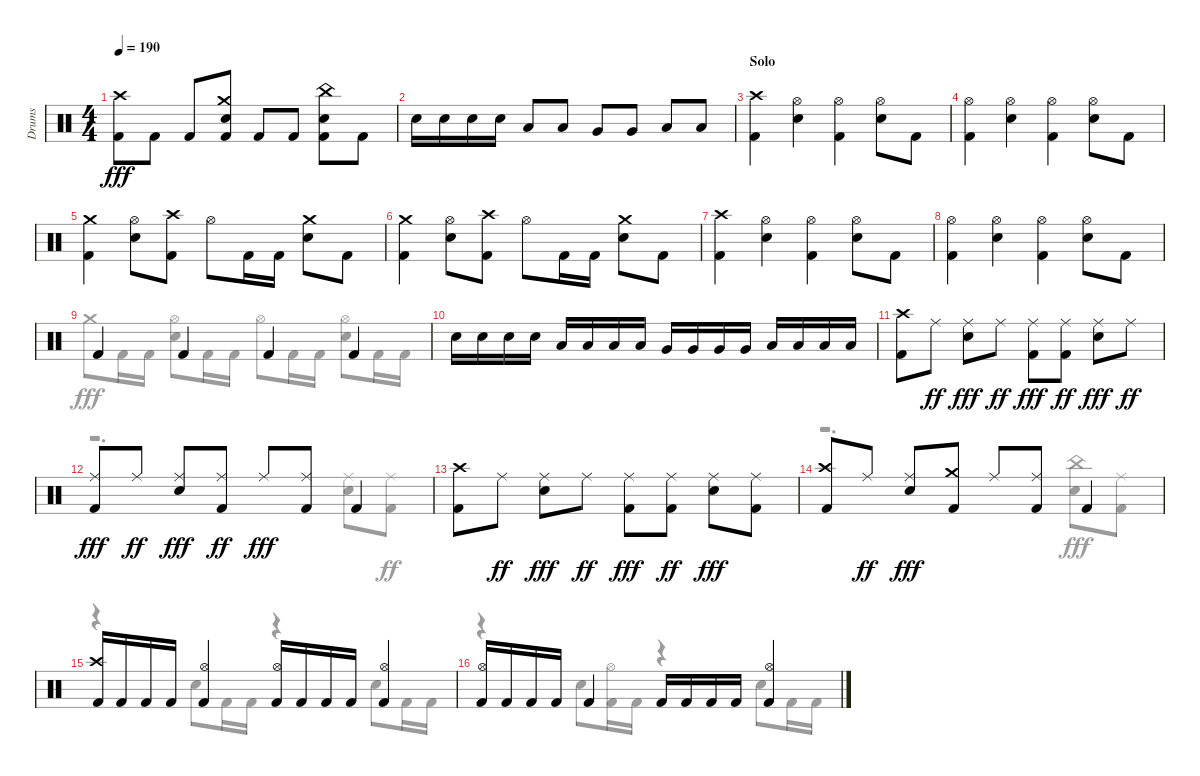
\track ("Drums" "Drums") {instrument percussion}
\staff {score}
\articulation defaults
\voice
\ts (4 4)
\tempo 190
\clef neutral
\ks aminor
("Crash high (hit)" "Kick (hit) 2").8{dy fff} "Kick (hit) 2".8 "Kick (hit) 2".8 ("Crash medium (hit)" "Kick (hit) 2" "Snare (hit) 2").8 "Kick (hit) 2".8 "Kick (hit) 2".8 ("Kick (hit) 2" "China (hit)" "Snare (hit) 2").8 "Kick (hit) 2".8 |
"Snare (hit) 2".16 "Snare (hit) 2".16 "Snare (hit) 2".16 "Snare (hit) 2".16 "Low Tom (hit)".8 "Low Tom (hit)".8 "Very Low Tom (hit)".8 "Very Low Tom (hit)".8 "Low Floor Tom (hit)".8 "Low Floor Tom (hit)".8 |
\section ("" "Solo")
("Kick (hit) 2" "Crash high (hit)").4 ("Hi-Hat (open)" "Snare (hit) 2").4 ("Hi-Hat (open)" "Kick (hit) 2").4 ("Hi-Hat (open)" "Snare (hit) 2").8 "Kick (hit) 2".8 |
("Kick (hit) 2" "Hi-Hat (open)").4 ("Hi-Hat (open)" "Snare (hit) 2").4 ("Hi-Hat (open)" "Kick (hit) 2").4 ("Hi-Hat (open)" "Snare (hit) 2").8 "Kick (hit) 2".8 |
("Kick (hit) 2" "Crash medium (hit)").4 ("Hi-Hat (open)" "Snare (hit) 2").8 ("Crash high (hit)" "Kick (hit) 2").8 "Hi-Hat (open)".8 "Kick (hit) 2".16 "Kick (hit) 2".16 ("Crash medium (hit)" "Snare (hit) 2").8 "Kick (hit) 2".8 |
("Crash medium (hit)" "Kick (hit) 2").4 ("Snare (hit) 2" "Hi-Hat (open)").8 ("Crash high (hit)" "Kick (hit) 2").8 "Hi-Hat (open)".8 "Kick (hit) 2".16 "Kick (hit) 2".16 ("Crash medium (hit)" "Snare (hit) 2").8 "Kick (hit) 2".8 |
("Kick (hit) 2" "Crash high (hit)").4 ("Hi-Hat (open)" "Snare (hit) 2").4 ("Kick (hit) 2" "Hi-Hat (open)").4 ("Hi-Hat (open)" "Snare (hit) 2").8 "Kick (hit) 2".8 |
("Hi-Hat (open)" "Kick (hit) 2").4 ("Snare (hit) 2" "Hi-Hat (open)").4 ("Hi-Hat (open)" "Kick (hit) 2").4 ("Hi-Hat (open)" "Snare (hit) 2").8 "Kick (hit) 2".8 |
"Kick (hit) 2".4 "Kick (hit) 2".4 "Kick (hit) 2".4 "Kick (hit) 2".4 |
"Snare (hit) 2".16 "Snare (hit) 2".16 "Snare (hit) 2".16 "Snare (hit) 2".16 "Low Tom (hit)".16 "Low Tom (hit)".16 "Low Tom (hit)".16 "Low Tom (hit)".16 "Very Low Tom (hit)".16 "Very Low Tom (hit)".16 "Very Low Tom (hit)".16 "Very Low Tom (hit)".16 "Low Floor Tom (hit)".16 "Low Floor Tom (hit)".16 "Low Floor Tom (hit)".16 "Low Floor Tom (hit)".16 |
("Kick (hit) 2" "Crash high (hit)").8 "Ride (middle)".8{dy ff} ("Ride (middle)" "Snare (hit) 2").8{dy fff} "Ride (middle)".8{dy ff} ("Kick (hit) 2" "Ride (middle)").8{dy fff} ("Ride (middle)" "Kick (hit) 2").8{dy ff} ("Ride (middle)" "Snare (hit) 2").8{dy fff} "Ride (middle)".8{dy ff} |
("Ride (middle)" "Kick (hit) 2").8{dy fff} "Ride (middle)".8{dy ff} ("Snare (hit) 2" "Ride (middle)").8{dy fff} ("Ride (middle)" "Kick (hit) 2").8{dy ff} "Ride (middle)".8{dy fff} ("Ride (middle)" "Kick (hit) 2").8 "Kick (hit) 2".4 |
("Crash high (hit)" "Kick (hit) 2").8 "Ride (middle)".8{dy ff} ("Ride (middle)" "Snare (hit) 2").8{dy fff} "Ride (middle)".8{dy ff} ("Ride (middle)" "Kick (hit) 2").8{dy fff} ("Kick (hit) 2" "Ride (middle)").8{dy ff} ("Ride (middle)" "Snare (hit) 2").8{dy fff} ("Ride (middle)" "Kick (hit) 2").8 |
("Kick (hit) 2" "Crash high (hit)").8 "Ride (middle)".8{dy ff} ("Ride (middle)" "Snare (hit) 2").8{dy fff} ("Kick (hit) 2" "Crash medium (hit)").8 "Ride (middle)".8 ("Ride (middle)" "Kick (hit) 2").8 "Kick (hit) 2".4 |
("Crash high (hit)" "Kick (hit) 2").16 "Kick (hit) 2".16 "Kick (hit) 2".16 "Kick (hit) 2".16 ("Kick (hit) 2" "Hi-Hat (open)").4 ("Hi-Hat (open)" "Kick (hit) 2").16 "Kick (hit) 2".16 "Kick (hit) 2".16 "Kick (hit) 2".16 ("Hi-Hat (open)" "Kick (hit) 2").4 |
("Kick (hit) 2" "Hi-Hat (open)").16 "Kick (hit) 2".16 "Kick (hit) 2".16 "Kick (hit) 2".16 "Kick (hit) 2".4 "Kick (hit) 2".16 "Kick (hit) 2".16 "Kick (hit) 2".16 "Kick (hit) 2".16 ("Kick (hit) 2" "Hi-Hat (open)").4
\voice
\clef neutral
\ottava regular
\simile none
\ks aminor
|
|
|
|
|
|
|
|
"Crash medium (hit)".8 "Kick (hit) 2".16 "Kick (hit) 2".16 ("Snare (hit) 2" "Hi-Hat (open)").8 "Kick (hit) 2".16 "Kick (hit) 2".16 "Hi-Hat (open)".8 "Kick (hit) 2".16 "Kick (hit) 2".16 ("Hi-Hat (open)" "Snare (hit) 2").8 "Kick (hit) 2".16 "Kick (hit) 2".16 |
|
|
r.2{d} ("Snare (hit) 2" "Ride (middle)").8 ("Kick (hit) 2" "Ride (middle)").8{dy ff} |
|
r.2{d} ("China (hit)" "Snare (hit) 2").8{dy fff} ("Ride (middle)" "Kick (hit) 2").8 |
r.4 "Snare (hit) 2".8 "Kick (hit) 2".16 "Kick (hit) 2".16 r.4 "Snare (hit) 2".8 "Kick (hit) 2".16 "Kick (hit) 2".16 |
r.4 "Snare (hit) 2".8 ("Kick (hit) 2" "Hi-Hat (open)").16 "Kick (hit) 2".16 r.4 "Snare (hit) 2".8 "Kick (hit) 2".16 "Kick (hit) 2".16
